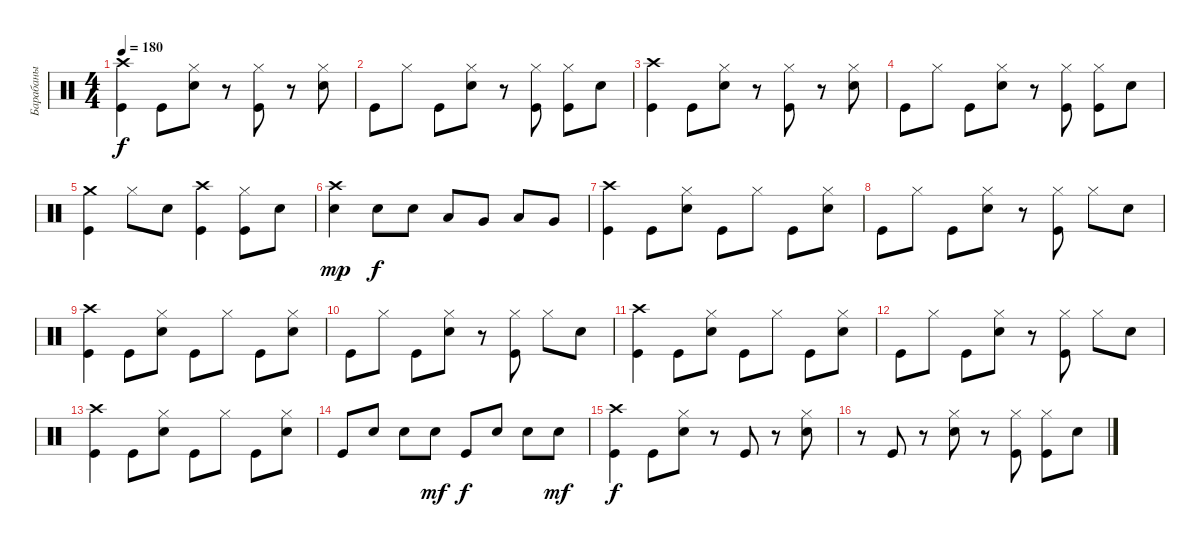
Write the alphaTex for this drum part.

\track ("Барабаны" "Барабаны") {instrument percussion}
\staff {score}
\articulation defaults
\ts (4 4)
\tempo 180
\clef neutral
\ks c
("Crash high (hit)" "Kick (hit)").4{dy f} "Kick (hit)".8 ("Hi-Hat (closed)" "Electric Snare (hit)").8 r.8 ("Hi-Hat (closed)" "Kick (hit)").8 r.8 ("Hi-Hat (closed)" "Electric Snare (hit)").8 |
"Kick (hit)".8 "Hi-Hat (closed)".8 "Kick (hit)".8 ("Hi-Hat (closed)" "Electric Snare (hit)").8 r.8 ("Hi-Hat (closed)" "Kick (hit)").8 ("Kick (hit)" "Hi-Hat (closed)").8 "Electric Snare (hit)".8 |
("Kick (hit)" "Crash high (hit)").4 "Kick (hit)".8 ("Electric Snare (hit)" "Hi-Hat (closed)").8 r.8 ("Kick (hit)" "Hi-Hat (closed)").8 r.8 ("Electric Snare (hit)" "Hi-Hat (closed)").8 |
"Kick (hit)".8 "Hi-Hat (closed)".8 "Kick (hit)".8 ("Hi-Hat (closed)" "Electric Snare (hit)").8 r.8 ("Kick (hit)" "Hi-Hat (closed)").8 ("Hi-Hat (closed)" "Kick (hit)").8 "Electric Snare (hit)".8 |
("Kick (hit)" "Crash medium (hit)").4 "Hi-Hat (closed)".8 "Electric Snare (hit)".8 ("Kick (hit)" "Crash high (hit)").4 ("Hi-Hat (closed)" "Kick (hit)").8 "Electric Snare (hit)".8 |
("Electric Snare (hit)" "Crash high (hit)").4{dy mp} "Electric Snare (hit)".8{dy f} "Electric Snare (hit)".8 "Low Tom (hit)".8 "Very Low Tom (hit)".8 "Low Floor Tom (hit)".8 "Very Low Tom (hit)".8 |
("Kick (hit)" "Crash high (hit)").4 "Kick (hit)".8 ("Hi-Hat (closed)" "Electric Snare (hit)").8 "Kick (hit)".8 "Hi-Hat (closed)".8 "Kick (hit)".8 ("Hi-Hat (closed)" "Electric Snare (hit)").8 |
"Kick (hit)".8 "Hi-Hat (closed)".8 "Kick (hit)".8 ("Hi-Hat (closed)" "Electric Snare (hit)").8 r.8 ("Kick (hit)" "Hi-Hat (closed)").8 "Hi-Hat (closed)".8 "Electric Snare (hit)".8 |
("Crash high (hit)" "Kick (hit)").4 "Kick (hit)".8 ("Hi-Hat (closed)" "Electric Snare (hit)").8 "Kick (hit)".8 "Hi-Hat (closed)".8 "Kick (hit)".8 ("Electric Snare (hit)" "Hi-Hat (closed)").8 |
"Kick (hit)".8 "Hi-Hat (closed)".8 "Kick (hit)".8 ("Hi-Hat (closed)" "Electric Snare (hit)").8 r.8 ("Hi-Hat (closed)" "Kick (hit)").8 "Hi-Hat (closed)".8 "Electric Snare (hit)".8 |
("Kick (hit)" "Crash high (hit)").4 "Kick (hit)".8 ("Electric Snare (hit)" "Hi-Hat (closed)").8 "Kick (hit)".8 "Hi-Hat (closed)".8 "Kick (hit)".8 ("Hi-Hat (closed)" "Electric Snare (hit)").8 |
"Kick (hit)".8 "Hi-Hat (closed)".8 "Kick (hit)".8 ("Hi-Hat (closed)" "Electric Snare (hit)").8 r.8 ("Kick (hit)" "Hi-Hat (closed)").8 "Hi-Hat (closed)".8 "Electric Snare (hit)".8 |
("Kick (hit)" "Crash high (hit)").4 "Kick (hit)".8 ("Hi-Hat (closed)" "Electric Snare (hit)").8 "Kick (hit)".8 "Hi-Hat (closed)".8 "Kick (hit)".8 ("Hi-Hat (closed)" "Electric Snare (hit)").8 |
"Kick (hit)".8 "Electric Snare (hit)".8 "Electric Snare (hit)".8 "Electric Snare (hit)".8{dy mf} "Kick (hit)".8{dy f} "Electric Snare (hit)".8 "Electric Snare (hit)".8 "Electric Snare (hit)".8{dy mf} |
("Kick (hit)" "Crash high (hit)").4{dy f} "Kick (hit)".8 ("Hi-Hat (closed)" "Electric Snare (hit)").8 r.8 "Kick (hit)".8 r.8 ("Electric Snare (hit)" "Hi-Hat (closed)").8 |
r.8 "Kick (hit)".8 r.8 ("Electric Snare (hit)" "Hi-Hat (closed)").8 r.8 ("Hi-Hat (closed)" "Kick (hit)").8 ("Kick (hit)" "Hi-Hat (closed)").8 "Electric Snare (hit)".8
